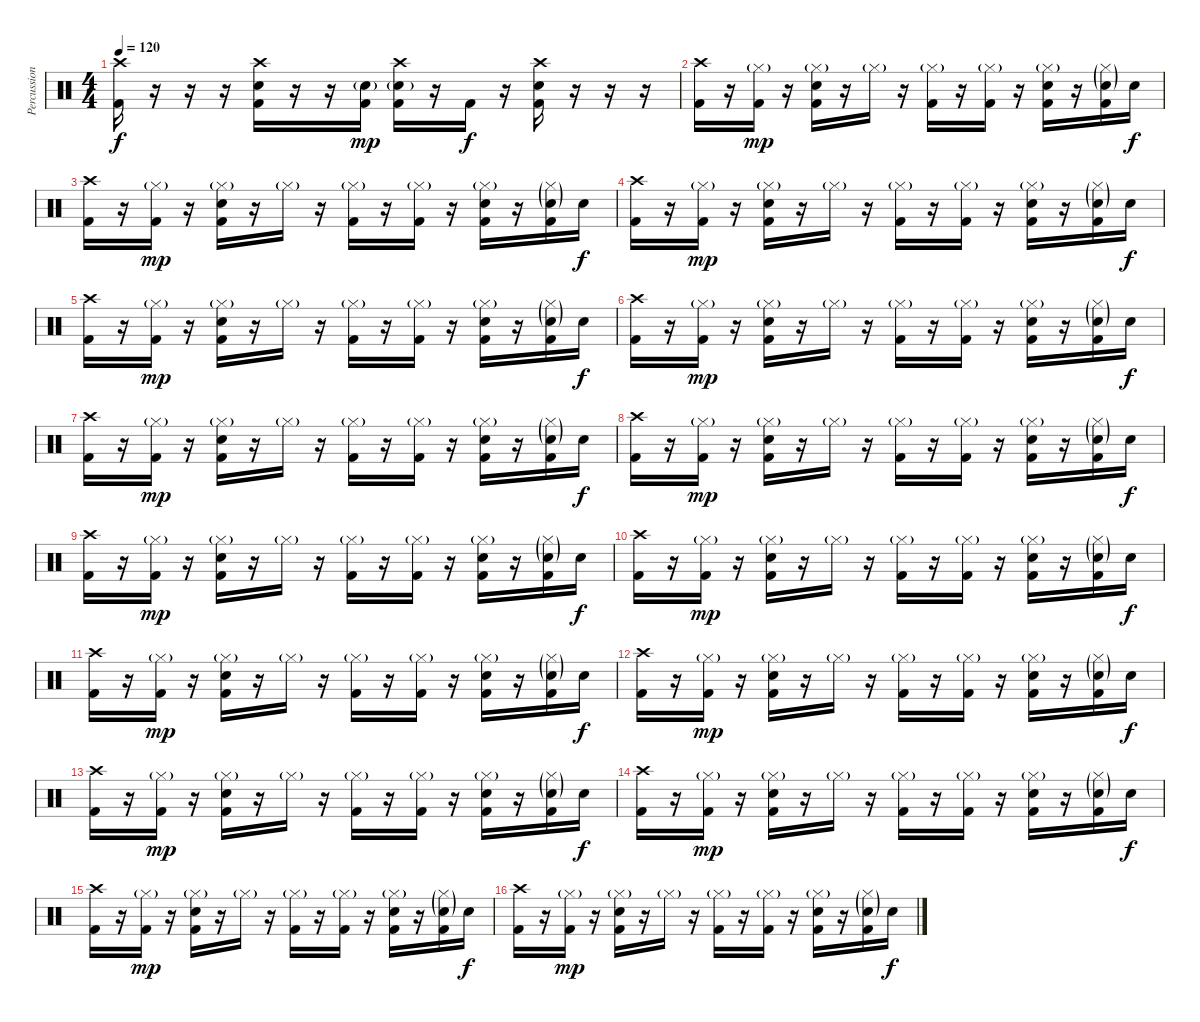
\track ("Percussion" "Percussion") {instrument percussion}
\staff {score}
\articulation defaults
\ts (4 4)
\tempo 120
\clef neutral
\ks c
("Crash high (hit)" "Kick (hit) 2").16{dy f} r.16 r.16 r.16 ("Crash high (hit)" "Snare (hit) 2" "Kick (hit) 2").16 r.16 r.16 ("Snare (hit) 2"{g} "Kick (hit) 2").16{dy mp} ("Crash high (hit)" "Snare (hit) 2"{g} "Kick (hit) 2").16 r.16 "Kick (hit) 2".16{dy f} r.16 ("Crash high (hit)" "Snare (hit) 2" "Kick (hit) 2").16 r.16 r.16 r.16 |
("Crash high (hit)" "Kick (hit) 2").16 r.16 ("Hi-Hat (closed)"{g} "Kick (hit) 2").16{dy mp} r.16 ("Hi-Hat (closed)"{g} "Snare (hit) 2" "Kick (hit) 2").16 r.16 "Hi-Hat (closed)"{g}.16 r.16 ("Hi-Hat (closed)"{g} "Kick (hit) 2").16 r.16 ("Hi-Hat (closed)"{g} "Kick (hit) 2").16 r.16 ("Hi-Hat (closed)"{g} "Snare (hit) 2" "Kick (hit) 2").16 r.16 ("Hi-Hat (closed)"{g} "Snare (hit) 2"{g} "Kick (hit) 2").16 "Snare (hit) 2".16{dy f} |
("Crash high (hit)" "Kick (hit) 2").16 r.16 ("Hi-Hat (closed)"{g} "Kick (hit) 2").16{dy mp} r.16 ("Hi-Hat (closed)"{g} "Snare (hit) 2" "Kick (hit) 2").16 r.16 "Hi-Hat (closed)"{g}.16 r.16 ("Hi-Hat (closed)"{g} "Kick (hit) 2").16 r.16 ("Hi-Hat (closed)"{g} "Kick (hit) 2").16 r.16 ("Hi-Hat (closed)"{g} "Snare (hit) 2" "Kick (hit) 2").16 r.16 ("Hi-Hat (closed)"{g} "Snare (hit) 2"{g} "Kick (hit) 2").16 "Snare (hit) 2".16{dy f} |
("Crash high (hit)" "Kick (hit) 2").16 r.16 ("Hi-Hat (closed)"{g} "Kick (hit) 2").16{dy mp} r.16 ("Hi-Hat (closed)"{g} "Snare (hit) 2" "Kick (hit) 2").16 r.16 "Hi-Hat (closed)"{g}.16 r.16 ("Hi-Hat (closed)"{g} "Kick (hit) 2").16 r.16 ("Hi-Hat (closed)"{g} "Kick (hit) 2").16 r.16 ("Hi-Hat (closed)"{g} "Snare (hit) 2" "Kick (hit) 2").16 r.16 ("Hi-Hat (closed)"{g} "Snare (hit) 2"{g} "Kick (hit) 2").16 "Snare (hit) 2".16{dy f} |
("Crash high (hit)" "Kick (hit) 2").16 r.16 ("Hi-Hat (closed)"{g} "Kick (hit) 2").16{dy mp} r.16 ("Hi-Hat (closed)"{g} "Snare (hit) 2" "Kick (hit) 2").16 r.16 "Hi-Hat (closed)"{g}.16 r.16 ("Hi-Hat (closed)"{g} "Kick (hit) 2").16 r.16 ("Hi-Hat (closed)"{g} "Kick (hit) 2").16 r.16 ("Hi-Hat (closed)"{g} "Snare (hit) 2" "Kick (hit) 2").16 r.16 ("Hi-Hat (closed)"{g} "Snare (hit) 2"{g} "Kick (hit) 2").16 "Snare (hit) 2".16{dy f} |
("Crash high (hit)" "Kick (hit) 2").16 r.16 ("Hi-Hat (closed)"{g} "Kick (hit) 2").16{dy mp} r.16 ("Hi-Hat (closed)"{g} "Snare (hit) 2" "Kick (hit) 2").16 r.16 "Hi-Hat (closed)"{g}.16 r.16 ("Hi-Hat (closed)"{g} "Kick (hit) 2").16 r.16 ("Hi-Hat (closed)"{g} "Kick (hit) 2").16 r.16 ("Hi-Hat (closed)"{g} "Snare (hit) 2" "Kick (hit) 2").16 r.16 ("Hi-Hat (closed)"{g} "Snare (hit) 2"{g} "Kick (hit) 2").16 "Snare (hit) 2".16{dy f} |
("Crash high (hit)" "Kick (hit) 2").16 r.16 ("Hi-Hat (closed)"{g} "Kick (hit) 2").16{dy mp} r.16 ("Hi-Hat (closed)"{g} "Snare (hit) 2" "Kick (hit) 2").16 r.16 "Hi-Hat (closed)"{g}.16 r.16 ("Hi-Hat (closed)"{g} "Kick (hit) 2").16 r.16 ("Hi-Hat (closed)"{g} "Kick (hit) 2").16 r.16 ("Hi-Hat (closed)"{g} "Snare (hit) 2" "Kick (hit) 2").16 r.16 ("Hi-Hat (closed)"{g} "Snare (hit) 2"{g} "Kick (hit) 2").16 "Snare (hit) 2".16{dy f} |
("Crash high (hit)" "Kick (hit) 2").16 r.16 ("Hi-Hat (closed)"{g} "Kick (hit) 2").16{dy mp} r.16 ("Hi-Hat (closed)"{g} "Snare (hit) 2" "Kick (hit) 2").16 r.16 "Hi-Hat (closed)"{g}.16 r.16 ("Hi-Hat (closed)"{g} "Kick (hit) 2").16 r.16 ("Hi-Hat (closed)"{g} "Kick (hit) 2").16 r.16 ("Hi-Hat (closed)"{g} "Snare (hit) 2" "Kick (hit) 2").16 r.16 ("Hi-Hat (closed)"{g} "Snare (hit) 2"{g} "Kick (hit) 2").16 "Snare (hit) 2".16{dy f} |
("Crash high (hit)" "Kick (hit) 2").16 r.16 ("Hi-Hat (closed)"{g} "Kick (hit) 2").16{dy mp} r.16 ("Hi-Hat (closed)"{g} "Snare (hit) 2" "Kick (hit) 2").16 r.16 "Hi-Hat (closed)"{g}.16 r.16 ("Hi-Hat (closed)"{g} "Kick (hit) 2").16 r.16 ("Hi-Hat (closed)"{g} "Kick (hit) 2").16 r.16 ("Hi-Hat (closed)"{g} "Snare (hit) 2" "Kick (hit) 2").16 r.16 ("Hi-Hat (closed)"{g} "Snare (hit) 2"{g} "Kick (hit) 2").16 "Snare (hit) 2".16{dy f} |
("Crash high (hit)" "Kick (hit) 2").16 r.16 ("Hi-Hat (closed)"{g} "Kick (hit) 2").16{dy mp} r.16 ("Hi-Hat (closed)"{g} "Snare (hit) 2" "Kick (hit) 2").16 r.16 "Hi-Hat (closed)"{g}.16 r.16 ("Hi-Hat (closed)"{g} "Kick (hit) 2").16 r.16 ("Hi-Hat (closed)"{g} "Kick (hit) 2").16 r.16 ("Hi-Hat (closed)"{g} "Snare (hit) 2" "Kick (hit) 2").16 r.16 ("Hi-Hat (closed)"{g} "Snare (hit) 2"{g} "Kick (hit) 2").16 "Snare (hit) 2".16{dy f} |
("Crash high (hit)" "Kick (hit) 2").16 r.16 ("Hi-Hat (closed)"{g} "Kick (hit) 2").16{dy mp} r.16 ("Hi-Hat (closed)"{g} "Snare (hit) 2" "Kick (hit) 2").16 r.16 "Hi-Hat (closed)"{g}.16 r.16 ("Hi-Hat (closed)"{g} "Kick (hit) 2").16 r.16 ("Hi-Hat (closed)"{g} "Kick (hit) 2").16 r.16 ("Hi-Hat (closed)"{g} "Snare (hit) 2" "Kick (hit) 2").16 r.16 ("Hi-Hat (closed)"{g} "Snare (hit) 2"{g} "Kick (hit) 2").16 "Snare (hit) 2".16{dy f} |
("Crash high (hit)" "Kick (hit) 2").16 r.16 ("Hi-Hat (closed)"{g} "Kick (hit) 2").16{dy mp} r.16 ("Hi-Hat (closed)"{g} "Snare (hit) 2" "Kick (hit) 2").16 r.16 "Hi-Hat (closed)"{g}.16 r.16 ("Hi-Hat (closed)"{g} "Kick (hit) 2").16 r.16 ("Hi-Hat (closed)"{g} "Kick (hit) 2").16 r.16 ("Hi-Hat (closed)"{g} "Snare (hit) 2" "Kick (hit) 2").16 r.16 ("Hi-Hat (closed)"{g} "Snare (hit) 2"{g} "Kick (hit) 2").16 "Snare (hit) 2".16{dy f} |
("Crash high (hit)" "Kick (hit) 2").16 r.16 ("Hi-Hat (closed)"{g} "Kick (hit) 2").16{dy mp} r.16 ("Hi-Hat (closed)"{g} "Snare (hit) 2" "Kick (hit) 2").16 r.16 "Hi-Hat (closed)"{g}.16 r.16 ("Hi-Hat (closed)"{g} "Kick (hit) 2").16 r.16 ("Hi-Hat (closed)"{g} "Kick (hit) 2").16 r.16 ("Hi-Hat (closed)"{g} "Snare (hit) 2" "Kick (hit) 2").16 r.16 ("Hi-Hat (closed)"{g} "Snare (hit) 2"{g} "Kick (hit) 2").16 "Snare (hit) 2".16{dy f} |
("Crash high (hit)" "Kick (hit) 2").16 r.16 ("Hi-Hat (closed)"{g} "Kick (hit) 2").16{dy mp} r.16 ("Hi-Hat (closed)"{g} "Snare (hit) 2" "Kick (hit) 2").16 r.16 "Hi-Hat (closed)"{g}.16 r.16 ("Hi-Hat (closed)"{g} "Kick (hit) 2").16 r.16 ("Hi-Hat (closed)"{g} "Kick (hit) 2").16 r.16 ("Hi-Hat (closed)"{g} "Snare (hit) 2" "Kick (hit) 2").16 r.16 ("Hi-Hat (closed)"{g} "Snare (hit) 2"{g} "Kick (hit) 2").16 "Snare (hit) 2".16{dy f} |
("Crash high (hit)" "Kick (hit) 2").16 r.16 ("Hi-Hat (closed)"{g} "Kick (hit) 2").16{dy mp} r.16 ("Hi-Hat (closed)"{g} "Snare (hit) 2" "Kick (hit) 2").16 r.16 "Hi-Hat (closed)"{g}.16 r.16 ("Hi-Hat (closed)"{g} "Kick (hit) 2").16 r.16 ("Hi-Hat (closed)"{g} "Kick (hit) 2").16 r.16 ("Hi-Hat (closed)"{g} "Snare (hit) 2" "Kick (hit) 2").16 r.16 ("Hi-Hat (closed)"{g} "Snare (hit) 2"{g} "Kick (hit) 2").16 "Snare (hit) 2".16{dy f} |
("Crash high (hit)" "Kick (hit) 2").16 r.16 ("Hi-Hat (closed)"{g} "Kick (hit) 2").16{dy mp} r.16 ("Hi-Hat (closed)"{g} "Snare (hit) 2" "Kick (hit) 2").16 r.16 "Hi-Hat (closed)"{g}.16 r.16 ("Hi-Hat (closed)"{g} "Kick (hit) 2").16 r.16 ("Hi-Hat (closed)"{g} "Kick (hit) 2").16 r.16 ("Hi-Hat (closed)"{g} "Snare (hit) 2" "Kick (hit) 2").16 r.16 ("Hi-Hat (closed)"{g} "Snare (hit) 2"{g} "Kick (hit) 2").16 "Snare (hit) 2".16{dy f}
